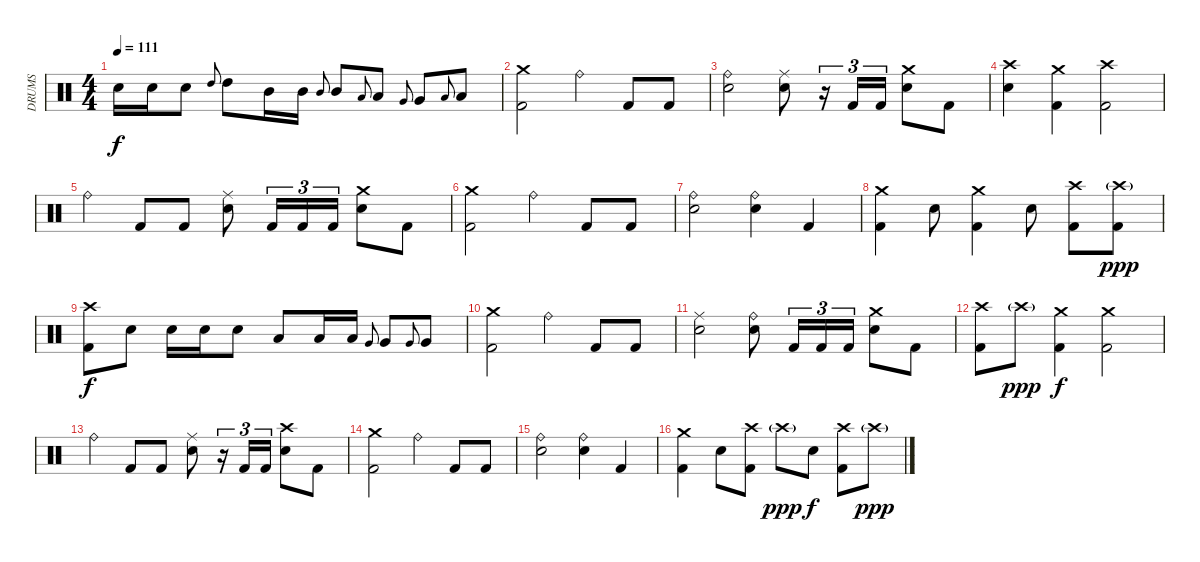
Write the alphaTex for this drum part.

\track ("DRUMS" "DRUMS") {instrument percussion}
\staff {score}
\articulation defaults
\ts (4 4)
\tempo 111
\clef neutral
\ks c "Snare (hit) 2".16{dy f} "Snare (hit) 2".16 "Snare (hit) 2".8 "High Tom (hit)".8{gr onbeat} "High Tom (hit)".8 "Mid Tom (hit)".16 "Mid Tom (hit)".16 "Mid Tom (hit)".8{gr onbeat} "Mid Tom (hit)".8 "Low Tom (hit)".8{gr onbeat} "Low Tom (hit)".8 "Very Low Tom (hit)".8{gr onbeat} "Very Low Tom (hit)".8 "Low Floor Tom (hit)".8{gr onbeat} "Low Floor Tom (hit)".8
|
("Crash medium (hit)" "Kick (hit) 2").2{volume 6} "Ride (bell)".4 "Kick (hit) 2".8 "Kick (hit) 2".8 |
("Ride (bell)" "Snare (hit) 2").2 ("Ride (middle)" "Snare (hit) 2").8 r.16{tu (3 2)} "Kick (hit) 2".16{tu (3 2)} "Kick (hit) 2".16{tu (3 2)} ("Crash medium (hit)" "Snare (hit) 2").8 "Kick (hit) 2".8 |
("Crash high (hit)" "Snare (hit) 2").4 ("Crash medium (hit)" "Kick (hit) 2").4 ("Crash high (hit)" "Kick (hit) 2").2 |
"Ride (bell)".4 "Kick (hit) 2".8 "Kick (hit) 2".8 ("Ride (middle)" "Snare (hit) 2").8 "Kick (hit) 2".16{tu (3 2)} "Kick (hit) 2".16{tu (3 2)} "Kick (hit) 2".16{tu (3 2)} ("Crash medium (hit)" "Snare (hit) 2").8 "Kick (hit) 2".8 |
("Crash medium (hit)" "Kick (hit) 2").2{volume 5} "Ride (bell)".4 "Kick (hit) 2".8 "Kick (hit) 2".8 |
("Ride (bell)" "Snare (hit) 2").2 ("Ride (bell)" "Snare (hit) 2").4 "Kick (hit) 2".4 |
("Crash medium (hit)" "Kick (hit) 2").4 "Snare (hit) 2".8 ("Crash medium (hit)" "Kick (hit) 2").4 "Snare (hit) 2".8 ("Crash high (hit)" "Kick (hit) 2").8 ("Crash high (hit)"{g} "Kick (hit) 2").8{dy ppp} |
("Crash high (hit)" "Kick (hit) 2").8{dy f} "Snare (hit) 2".8 "Snare (hit) 2".16 "Snare (hit) 2".16 "Snare (hit) 2".8 "Low Tom (hit)".8 "Low Tom (hit)".16 "Low Tom (hit)".16 "Very Low Tom (hit)".8{gr onbeat} "Very Low Tom (hit)".8 "Very Low Tom (hit)".8{gr onbeat} "Very Low Tom (hit)".8 |
("Crash medium (hit)" "Kick (hit) 2").2{volume 4} "Ride (bell)".4 "Kick (hit) 2".8 "Kick (hit) 2".8 |
("Ride (middle)" "Snare (hit) 2").2 ("Ride (bell)" "Snare (hit) 2").8 "Kick (hit) 2".16{tu (3 2)} "Kick (hit) 2".16{tu (3 2)} "Kick (hit) 2".16{tu (3 2)} ("Crash medium (hit)" "Snare (hit) 2").8 "Kick (hit) 2".8 |
("Crash high (hit)" "Kick (hit) 2").8 "Crash high (hit)"{g}.8{dy ppp} ("Crash medium (hit)" "Kick (hit) 2").4{dy f} ("Crash medium (hit)" "Kick (hit) 2").2 |
"Ride (bell)".4 "Kick (hit) 2".8 "Kick (hit) 2".8 ("Ride (middle)" "Snare (hit) 2").8 r.16{tu (3 2)} "Kick (hit) 2".16{tu (3 2)} "Kick (hit) 2".16{tu (3 2)} ("Crash high (hit)" "Snare (hit) 2").8 "Kick (hit) 2".8 |
("Crash medium (hit)" "Kick (hit) 2").2{volume 3} "Ride (bell)".4 "Kick (hit) 2".8 "Kick (hit) 2".8 |
("Ride (bell)" "Snare (hit) 2").2 ("Ride (bell)" "Snare (hit) 2").4 "Kick (hit) 2".4 |
("Crash medium (hit)" "Kick (hit) 2").4 "Snare (hit) 2".8 ("Crash high (hit)" "Kick (hit) 2").8 "Crash high (hit)"{g}.8{dy ppp} "Snare (hit) 2".8{dy f} ("Crash high (hit)" "Kick (hit) 2").8 "Crash high (hit)"{g}.8{dy ppp}
